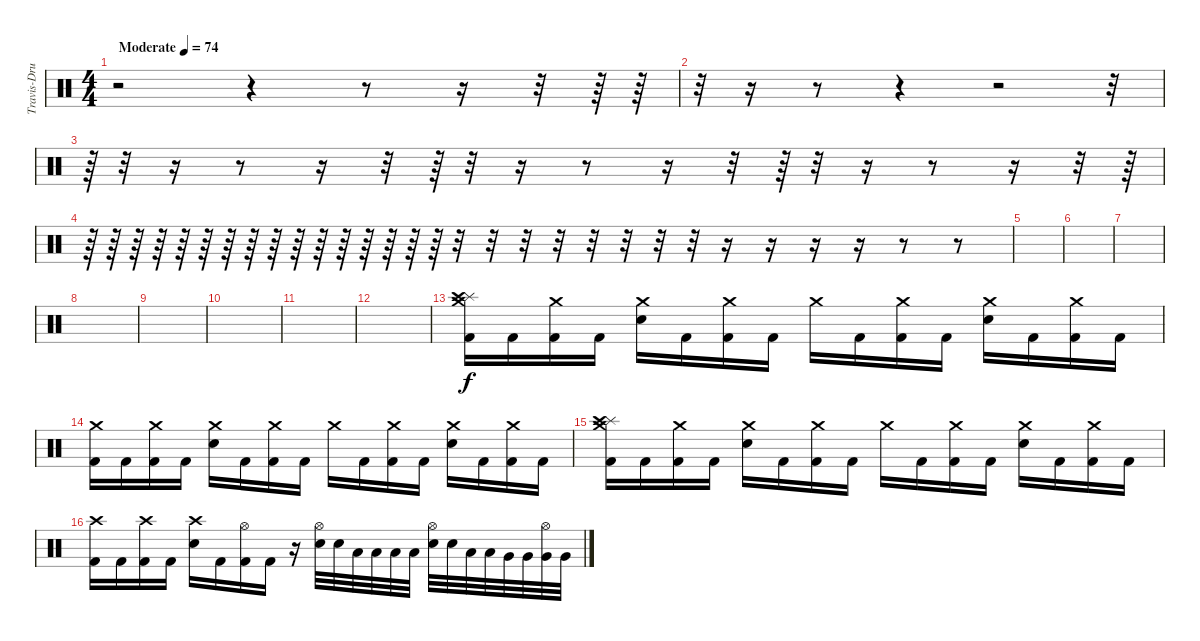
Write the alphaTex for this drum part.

\track ("Travis-Drums" "Travis-Dru") {instrument percussion}
\staff {score}
\articulation defaults
\ts (4 4)
\tempo (74 "Moderate")
\clef neutral
\ks c
r.2{dy f} r.4 r.8 r.16 r.32 r.64 r.64 |
r.32 r.16 r.8 r.4 r.2 r.32 |
r.64 r.32 r.16 r.8 r.16 r.32 r.64 r.32 r.16 r.8 r.16 r.32 r.64 r.32 r.16 r.8 r.16 r.32 r.64 |
r.64 r.64 r.64 r.64 r.64 r.64 r.64 r.64 r.64 r.64 r.64 r.64 r.64 r.64 r.64 r.64 r.32 r.32 r.32 r.32 r.32 r.32 r.32 r.32 r.16 r.16 r.16 r.16 r.8 r.8 |
|
|
|
|
|
|
|
|
("Splash (hit)" "Crash high (hit)" "Crash medium (hit)" "Kick (hit) 2").16{volume 10} "Kick (hit) 2".16 ("Crash medium (hit)" "Kick (hit) 2").16 "Kick (hit) 2".16 ("Crash medium (hit)" "Snare (hit) 2").16 "Kick (hit) 2".16 ("Crash medium (hit)" "Kick (hit) 2").16 "Kick (hit) 2".16 "Crash medium (hit)".16 "Kick (hit) 2".16 ("Crash medium (hit)" "Kick (hit) 2").16 "Kick (hit) 2".16 ("Crash medium (hit)" "Snare (hit) 2").16 "Kick (hit) 2".16 ("Crash medium (hit)" "Kick (hit) 2").16 "Kick (hit) 2".16 |
("Crash medium (hit)" "Kick (hit) 2").16 "Kick (hit) 2".16 ("Crash medium (hit)" "Kick (hit) 2").16 "Kick (hit) 2".16 ("Crash medium (hit)" "Snare (hit) 2").16 "Kick (hit) 2".16 ("Crash medium (hit)" "Kick (hit) 2").16 "Kick (hit) 2".16 "Crash medium (hit)".16 "Kick (hit) 2".16 ("Crash medium (hit)" "Kick (hit) 2").16 "Kick (hit) 2".16 ("Crash medium (hit)" "Snare (hit) 2").16 "Kick (hit) 2".16 ("Crash medium (hit)" "Kick (hit) 2").16 "Kick (hit) 2".16 |
("Splash (hit)" "Crash high (hit)" "Crash medium (hit)" "Kick (hit) 2").16 "Kick (hit) 2".16 ("Crash medium (hit)" "Kick (hit) 2").16 "Kick (hit) 2".16 ("Crash medium (hit)" "Snare (hit) 2").16 "Kick (hit) 2".16 ("Crash medium (hit)" "Kick (hit) 2").16 "Kick (hit) 2".16 "Crash medium (hit)".16 "Kick (hit) 2".16 ("Crash medium (hit)" "Kick (hit) 2").16 "Kick (hit) 2".16 ("Crash medium (hit)" "Snare (hit) 2").16 "Kick (hit) 2".16 ("Crash medium (hit)" "Kick (hit) 2").16 "Kick (hit) 2".16 |
("Crash high (hit)" "Kick (hit) 2").16 "Kick (hit) 2".16 ("Crash high (hit)" "Kick (hit) 2").16 "Kick (hit) 2".16 ("Crash high (hit)" "Snare (hit) 2").16 "Kick (hit) 2".16 ("Hi-Hat (open)" "Kick (hit) 2").16 "Kick (hit) 2".16 r.16 ("Hi-Hat (open)" "Electric Snare (hit)").32 "Electric Snare (hit)".32 "Low Tom (hit)".32 "Low Tom (hit)".32 "Low Tom (hit)".32 "Low Tom (hit)".32 ("Hi-Hat (open)" "Electric Snare (hit)").32 "Electric Snare (hit)".32 "Low Tom (hit)".32 "Low Tom (hit)".32 "Very Low Tom (hit)".32 "Very Low Tom (hit)".32 ("Hi-Hat (open)" "Very Low Tom (hit)").32 "Very Low Tom (hit)".32
